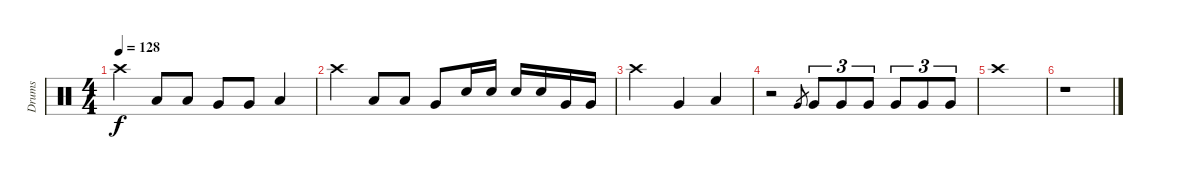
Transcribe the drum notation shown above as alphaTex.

\track ("Drums" "Drums") {instrument percussion}
\staff {score}
\articulation defaults
\ts (4 4)
\tempo 128
\clef neutral
\ks c "Crash high (hit)".4{dy f} "Low Tom (hit)".8 "Low Tom (hit)".8 "Very Low Tom (hit)".8 "Very Low Tom (hit)".8 "Low Tom (hit)".4
|
"Crash high (hit)".4 "Low Tom (hit)".8 "Low Tom (hit)".8 "Very Low Tom (hit)".8 "Electric Snare (hit)".16 "Electric Snare (hit)".16 "Electric Snare (hit)".16 "Electric Snare (hit)".16 "Very Low Tom (hit)".16 "Very Low Tom (hit)".16 |
"Crash high (hit)".2 "Very Low Tom (hit)".4 "Low Floor Tom (hit)".4 |
r.2 "Very Low Tom (hit)".8{gr} "Very Low Tom (hit)".8{tu (3 2)} "Very Low Tom (hit)".8{tu (3 2)} "Very Low Tom (hit)".8{tu (3 2)} "Very Low Tom (hit)".8{tu (3 2)} "Very Low Tom (hit)".8{tu (3 2)} "Very Low Tom (hit)".8{tu (3 2)} |
"Crash high (hit)".1 |
r.1
